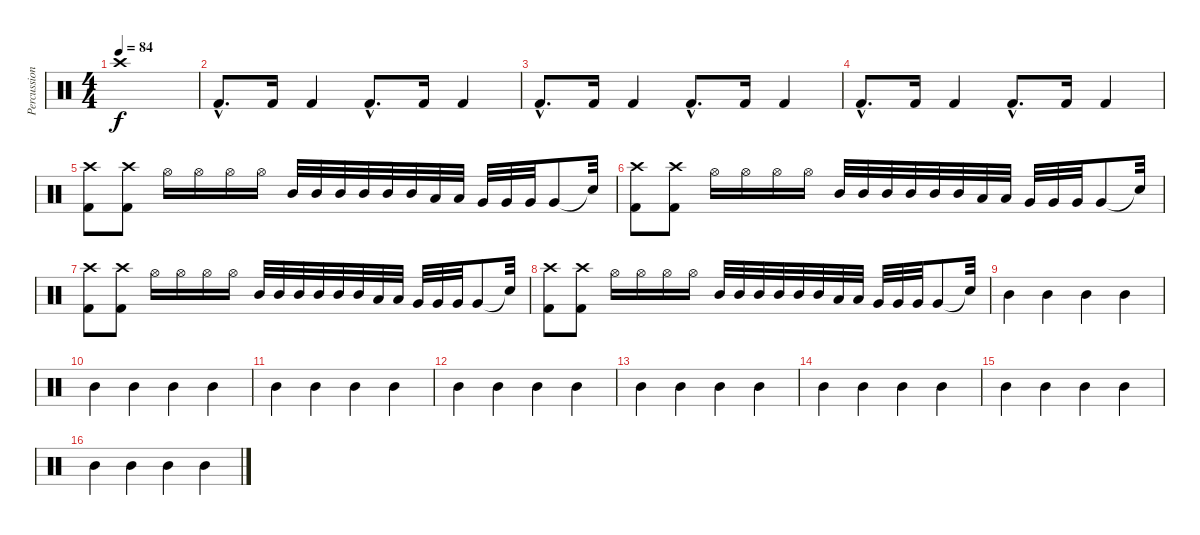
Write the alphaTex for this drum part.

\track ("Percussions" "Percussion") {instrument percussion}
\staff {score}
\articulation defaults
\ts (4 4)
\tempo 84
\clef neutral
\ks c "Crash high (hit)".1{dy f}
|
"Kick (hit) 2"{hac}.8{d} "Kick (hit) 2".16 "Kick (hit) 2".4 "Kick (hit) 2"{hac}.8{d} "Kick (hit) 2".16 "Kick (hit) 2".4 |
"Kick (hit) 2"{hac}.8{d} "Kick (hit) 2".16 "Kick (hit) 2".4 "Kick (hit) 2"{hac}.8{d} "Kick (hit) 2".16 "Kick (hit) 2".4 |
"Kick (hit) 2"{hac}.8{d} "Kick (hit) 2".16 "Kick (hit) 2".4 "Kick (hit) 2"{hac}.8{d} "Kick (hit) 2".16 "Kick (hit) 2".4 |
("Kick (hit) 2" "Crash high (hit)").8 ("Kick (hit) 2" "Crash high (hit)").8 "Hi-Hat (open)".16 "Hi-Hat (open)".16 "Hi-Hat (open)".16 "Hi-Hat (open)".16 "Mid Tom (hit)".32 "Mid Tom (hit)".32 "Mid Tom (hit)".32 "Mid Tom (hit)".32 "Mid Tom (hit)".32 "Mid Tom (hit)".32 "Low Tom (hit)".32 "Low Tom (hit)".32 "Very Low Tom (hit)".32 "Very Low Tom (hit)".32 "Very Low Tom (hit)".32 "Very Low Tom (hit)".8 "Snare (hit)"{t}.32 |
("Kick (hit) 2" "Crash high (hit)").8 ("Kick (hit) 2" "Crash high (hit)").8 "Hi-Hat (open)".16 "Hi-Hat (open)".16 "Hi-Hat (open)".16 "Hi-Hat (open)".16 "Mid Tom (hit)".32 "Mid Tom (hit)".32 "Mid Tom (hit)".32 "Mid Tom (hit)".32 "Mid Tom (hit)".32 "Mid Tom (hit)".32 "Low Tom (hit)".32 "Low Tom (hit)".32 "Very Low Tom (hit)".32 "Very Low Tom (hit)".32 "Very Low Tom (hit)".32 "Very Low Tom (hit)".8 "Snare (hit)"{t}.32 |
("Kick (hit) 2" "Crash high (hit)").8 ("Kick (hit) 2" "Crash high (hit)").8 "Hi-Hat (open)".16 "Hi-Hat (open)".16 "Hi-Hat (open)".16 "Hi-Hat (open)".16 "Mid Tom (hit)".32 "Mid Tom (hit)".32 "Mid Tom (hit)".32 "Mid Tom (hit)".32 "Mid Tom (hit)".32 "Mid Tom (hit)".32 "Low Tom (hit)".32 "Low Tom (hit)".32 "Very Low Tom (hit)".32 "Very Low Tom (hit)".32 "Very Low Tom (hit)".32 "Very Low Tom (hit)".8 "Snare (hit)"{t}.32 |
("Kick (hit) 2" "Crash high (hit)").8 ("Kick (hit) 2" "Crash high (hit)").8 "Hi-Hat (open)".16 "Hi-Hat (open)".16 "Hi-Hat (open)".16 "Hi-Hat (open)".16 "Mid Tom (hit)".32 "Mid Tom (hit)".32 "Mid Tom (hit)".32 "Mid Tom (hit)".32 "Mid Tom (hit)".32 "Mid Tom (hit)".32 "Low Tom (hit)".32 "Low Tom (hit)".32 "Very Low Tom (hit)".32 "Very Low Tom (hit)".32 "Very Low Tom (hit)".32 "Very Low Tom (hit)".8 "Snare (hit)"{t}.32 |
"Mid Tom (hit)".4 "Mid Tom (hit)".4 "Mid Tom (hit)".4 "Mid Tom (hit)".4 |
"Mid Tom (hit)".4 "Mid Tom (hit)".4 "Mid Tom (hit)".4 "Mid Tom (hit)".4 |
"Mid Tom (hit)".4 "Mid Tom (hit)".4 "Mid Tom (hit)".4 "Mid Tom (hit)".4 |
"Mid Tom (hit)".4 "Mid Tom (hit)".4 "Mid Tom (hit)".4 "Mid Tom (hit)".4 |
"Mid Tom (hit)".4 "Mid Tom (hit)".4 "Mid Tom (hit)".4 "Mid Tom (hit)".4 |
"Mid Tom (hit)".4 "Mid Tom (hit)".4 "Mid Tom (hit)".4 "Mid Tom (hit)".4 |
"Mid Tom (hit)".4 "Mid Tom (hit)".4 "Mid Tom (hit)".4 "Mid Tom (hit)".4 |
"Mid Tom (hit)".4 "Mid Tom (hit)".4 "Mid Tom (hit)".4 "Mid Tom (hit)".4
